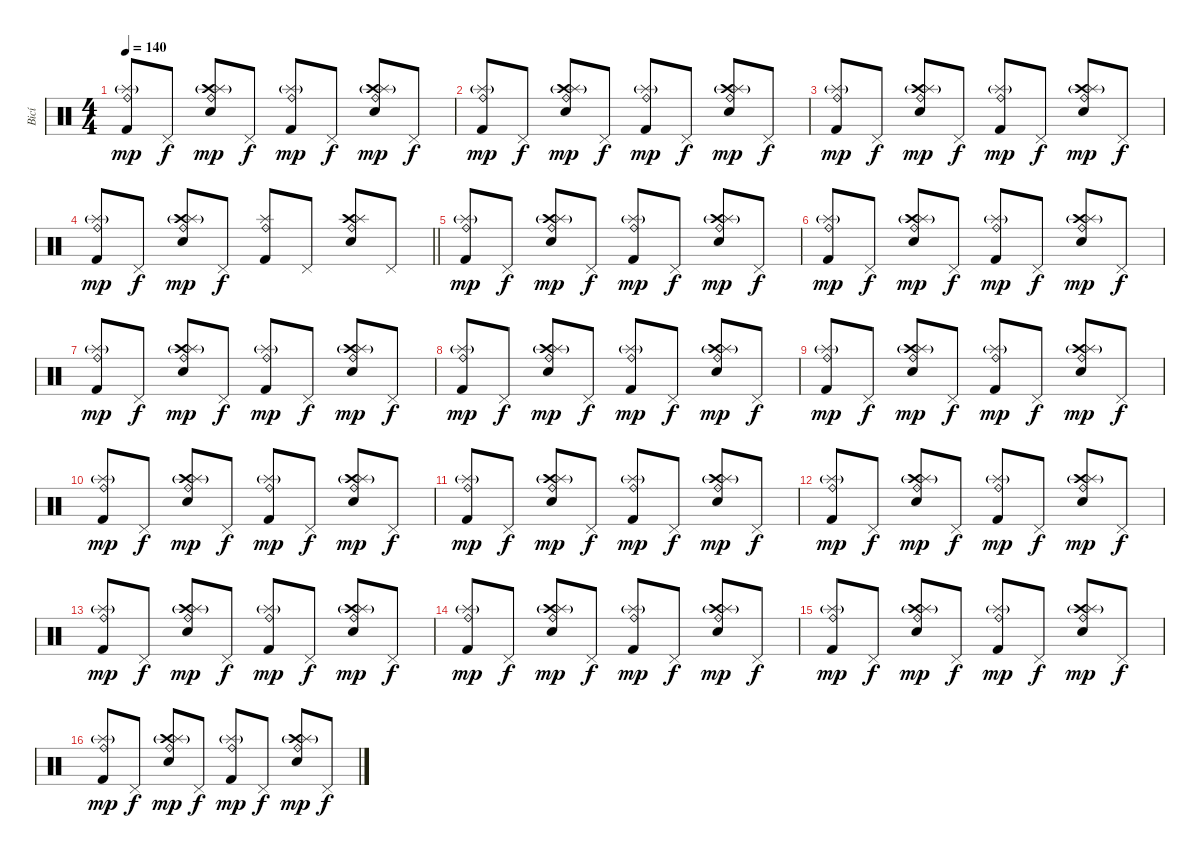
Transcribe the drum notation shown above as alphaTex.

\track ("Bicí" "Bicí") {instrument percussion}
\staff {score}
\articulation defaults
\ts (4 4)
\tempo 140
\clef neutral
\ks c
("Ride (bell)" "Splash (hit)"{g} "Kick (hit) 2").8{dy mp} "Pedal Hi-Hat (hit)".8{dy f} ("Crash high (hit)" "Ride (bell)" "Splash (hit)"{g} "Electric Snare (hit)").8{dy mp} "Pedal Hi-Hat (hit)".8{dy f} ("Ride (bell)" "Splash (hit)"{g} "Kick (hit) 2").8{dy mp} "Pedal Hi-Hat (hit)".8{dy f} ("Crash high (hit)" "Ride (bell)" "Splash (hit)"{g} "Electric Snare (hit)").8{dy mp} "Pedal Hi-Hat (hit)".8{dy f} |
("Ride (bell)" "Splash (hit)"{g} "Kick (hit) 2").8{dy mp} "Pedal Hi-Hat (hit)".8{dy f} ("Crash high (hit)" "Ride (bell)" "Splash (hit)"{g} "Electric Snare (hit)").8{dy mp} "Pedal Hi-Hat (hit)".8{dy f} ("Ride (bell)" "Splash (hit)"{g} "Kick (hit) 2").8{dy mp} "Pedal Hi-Hat (hit)".8{dy f} ("Crash high (hit)" "Ride (bell)" "Splash (hit)"{g} "Electric Snare (hit)").8{dy mp} "Pedal Hi-Hat (hit)".8{dy f} |
("Ride (bell)" "Splash (hit)"{g} "Kick (hit) 2").8{dy mp} "Pedal Hi-Hat (hit)".8{dy f} ("Crash high (hit)" "Ride (bell)" "Splash (hit)"{g} "Electric Snare (hit)").8{dy mp} "Pedal Hi-Hat (hit)".8{dy f} ("Ride (bell)" "Splash (hit)"{g} "Kick (hit) 2").8{dy mp} "Pedal Hi-Hat (hit)".8{dy f} ("Crash high (hit)" "Ride (bell)" "Splash (hit)"{g} "Electric Snare (hit)").8{dy mp} "Pedal Hi-Hat (hit)".8{dy f} |
\barLineRight lightlight
("Ride (bell)" "Splash (hit)"{g} "Kick (hit) 2").8{dy mp} "Pedal Hi-Hat (hit)".8{dy f} ("Crash high (hit)" "Ride (bell)" "Splash (hit)"{g} "Electric Snare (hit)").8{dy mp} "Pedal Hi-Hat (hit)".8{dy f} ("Ride (bell)" "Splash (hit)" "Kick (hit) 2").8 "Pedal Hi-Hat (hit)".8 ("Crash high (hit)" "Ride (bell)" "Splash (hit)" "Electric Snare (hit)").8 "Pedal Hi-Hat (hit)".8 |
("Ride (bell)" "Splash (hit)"{g} "Kick (hit) 2").8{dy mp} "Pedal Hi-Hat (hit)".8{dy f} ("Crash high (hit)" "Ride (bell)" "Splash (hit)"{g} "Electric Snare (hit)").8{dy mp} "Pedal Hi-Hat (hit)".8{dy f} ("Ride (bell)" "Splash (hit)"{g} "Kick (hit) 2").8{dy mp} "Pedal Hi-Hat (hit)".8{dy f} ("Crash high (hit)" "Ride (bell)" "Splash (hit)"{g} "Electric Snare (hit)").8{dy mp} "Pedal Hi-Hat (hit)".8{dy f} |
("Ride (bell)" "Splash (hit)"{g} "Kick (hit) 2").8{dy mp} "Pedal Hi-Hat (hit)".8{dy f} ("Crash high (hit)" "Ride (bell)" "Splash (hit)"{g} "Electric Snare (hit)").8{dy mp} "Pedal Hi-Hat (hit)".8{dy f} ("Ride (bell)" "Splash (hit)"{g} "Kick (hit) 2").8{dy mp} "Pedal Hi-Hat (hit)".8{dy f} ("Crash high (hit)" "Ride (bell)" "Splash (hit)"{g} "Electric Snare (hit)").8{dy mp} "Pedal Hi-Hat (hit)".8{dy f} |
("Ride (bell)" "Splash (hit)"{g} "Kick (hit) 2").8{dy mp} "Pedal Hi-Hat (hit)".8{dy f} ("Crash high (hit)" "Ride (bell)" "Splash (hit)"{g} "Electric Snare (hit)").8{dy mp} "Pedal Hi-Hat (hit)".8{dy f} ("Ride (bell)" "Splash (hit)"{g} "Kick (hit) 2").8{dy mp} "Pedal Hi-Hat (hit)".8{dy f} ("Crash high (hit)" "Ride (bell)" "Splash (hit)"{g} "Electric Snare (hit)").8{dy mp} "Pedal Hi-Hat (hit)".8{dy f} |
("Ride (bell)" "Splash (hit)"{g} "Kick (hit) 2").8{dy mp} "Pedal Hi-Hat (hit)".8{dy f} ("Crash high (hit)" "Ride (bell)" "Splash (hit)"{g} "Electric Snare (hit)").8{dy mp} "Pedal Hi-Hat (hit)".8{dy f} ("Ride (bell)" "Splash (hit)"{g} "Kick (hit) 2").8{dy mp} "Pedal Hi-Hat (hit)".8{dy f} ("Crash high (hit)" "Ride (bell)" "Splash (hit)"{g} "Electric Snare (hit)").8{dy mp} "Pedal Hi-Hat (hit)".8{dy f} |
("Ride (bell)" "Splash (hit)"{g} "Kick (hit) 2").8{dy mp} "Pedal Hi-Hat (hit)".8{dy f} ("Crash high (hit)" "Ride (bell)" "Splash (hit)"{g} "Electric Snare (hit)").8{dy mp} "Pedal Hi-Hat (hit)".8{dy f} ("Ride (bell)" "Splash (hit)"{g} "Kick (hit) 2").8{dy mp} "Pedal Hi-Hat (hit)".8{dy f} ("Crash high (hit)" "Ride (bell)" "Splash (hit)"{g} "Electric Snare (hit)").8{dy mp} "Pedal Hi-Hat (hit)".8{dy f} |
("Ride (bell)" "Splash (hit)"{g} "Kick (hit) 2").8{dy mp} "Pedal Hi-Hat (hit)".8{dy f} ("Crash high (hit)" "Ride (bell)" "Splash (hit)"{g} "Electric Snare (hit)").8{dy mp} "Pedal Hi-Hat (hit)".8{dy f} ("Ride (bell)" "Splash (hit)"{g} "Kick (hit) 2").8{dy mp} "Pedal Hi-Hat (hit)".8{dy f} ("Crash high (hit)" "Ride (bell)" "Splash (hit)"{g} "Electric Snare (hit)").8{dy mp} "Pedal Hi-Hat (hit)".8{dy f} |
("Ride (bell)" "Splash (hit)"{g} "Kick (hit) 2").8{dy mp} "Pedal Hi-Hat (hit)".8{dy f} ("Crash high (hit)" "Ride (bell)" "Splash (hit)"{g} "Electric Snare (hit)").8{dy mp} "Pedal Hi-Hat (hit)".8{dy f} ("Ride (bell)" "Splash (hit)"{g} "Kick (hit) 2").8{dy mp} "Pedal Hi-Hat (hit)".8{dy f} ("Crash high (hit)" "Ride (bell)" "Splash (hit)"{g} "Electric Snare (hit)").8{dy mp} "Pedal Hi-Hat (hit)".8{dy f} |
("Ride (bell)" "Splash (hit)"{g} "Kick (hit) 2").8{dy mp} "Pedal Hi-Hat (hit)".8{dy f} ("Crash high (hit)" "Ride (bell)" "Splash (hit)"{g} "Electric Snare (hit)").8{dy mp} "Pedal Hi-Hat (hit)".8{dy f} ("Ride (bell)" "Splash (hit)"{g} "Kick (hit) 2").8{dy mp} "Pedal Hi-Hat (hit)".8{dy f} ("Crash high (hit)" "Ride (bell)" "Splash (hit)"{g} "Electric Snare (hit)").8{dy mp} "Pedal Hi-Hat (hit)".8{dy f} |
("Ride (bell)" "Splash (hit)"{g} "Kick (hit) 2").8{dy mp} "Pedal Hi-Hat (hit)".8{dy f} ("Crash high (hit)" "Ride (bell)" "Splash (hit)"{g} "Electric Snare (hit)").8{dy mp} "Pedal Hi-Hat (hit)".8{dy f} ("Ride (bell)" "Splash (hit)"{g} "Kick (hit) 2").8{dy mp} "Pedal Hi-Hat (hit)".8{dy f} ("Crash high (hit)" "Ride (bell)" "Splash (hit)"{g} "Electric Snare (hit)").8{dy mp} "Pedal Hi-Hat (hit)".8{dy f} |
("Ride (bell)" "Splash (hit)"{g} "Kick (hit) 2").8{dy mp} "Pedal Hi-Hat (hit)".8{dy f} ("Crash high (hit)" "Ride (bell)" "Splash (hit)"{g} "Electric Snare (hit)").8{dy mp} "Pedal Hi-Hat (hit)".8{dy f} ("Ride (bell)" "Splash (hit)"{g} "Kick (hit) 2").8{dy mp} "Pedal Hi-Hat (hit)".8{dy f} ("Crash high (hit)" "Ride (bell)" "Splash (hit)"{g} "Electric Snare (hit)").8{dy mp} "Pedal Hi-Hat (hit)".8{dy f} |
("Ride (bell)" "Splash (hit)"{g} "Kick (hit) 2").8{dy mp} "Pedal Hi-Hat (hit)".8{dy f} ("Crash high (hit)" "Ride (bell)" "Splash (hit)"{g} "Electric Snare (hit)").8{dy mp} "Pedal Hi-Hat (hit)".8{dy f} ("Ride (bell)" "Splash (hit)"{g} "Kick (hit) 2").8{dy mp} "Pedal Hi-Hat (hit)".8{dy f} ("Crash high (hit)" "Ride (bell)" "Splash (hit)"{g} "Electric Snare (hit)").8{dy mp} "Pedal Hi-Hat (hit)".8{dy f} |
("Ride (bell)" "Splash (hit)"{g} "Kick (hit) 2").8{dy mp} "Pedal Hi-Hat (hit)".8{dy f} ("Crash high (hit)" "Ride (bell)" "Splash (hit)"{g} "Electric Snare (hit)").8{dy mp} "Pedal Hi-Hat (hit)".8{dy f} ("Ride (bell)" "Splash (hit)"{g} "Kick (hit) 2").8{dy mp} "Pedal Hi-Hat (hit)".8{dy f} ("Crash high (hit)" "Ride (bell)" "Splash (hit)"{g} "Electric Snare (hit)").8{dy mp} "Pedal Hi-Hat (hit)".8{dy f}
